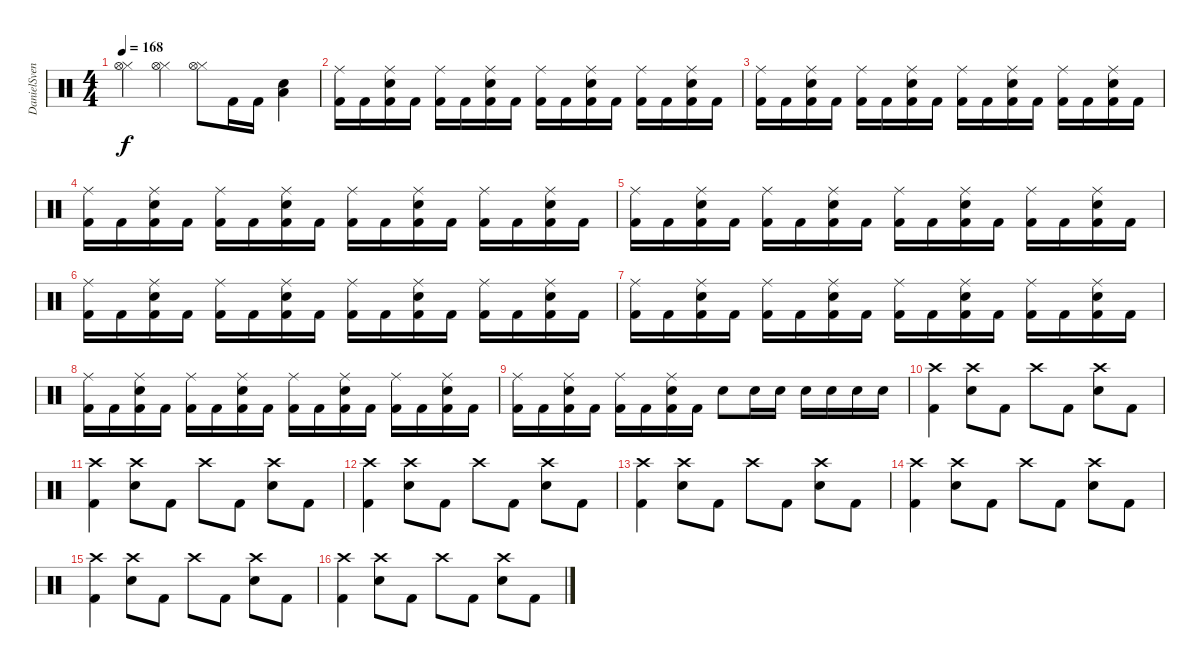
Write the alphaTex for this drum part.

\track ("DanielSvensson" "DanielSven") {instrument percussion}
\staff {score}
\articulation defaults
\ts (4 4)
\tempo 168
\clef neutral
\ks c
("Hi-Hat (closed)" "Hi-Hat (open)").4{dy f} ("Hi-Hat (closed)" "Hi-Hat (open)").4 ("Hi-Hat (closed)" "Hi-Hat (open)").8 "Kick (hit) 2".16 "Kick (hit) 2".16 ("Electric Snare (hit)" "Low Floor Tom (hit)").4 |
("Ride (middle)" "Kick (hit) 2").16 "Kick (hit) 2".16 ("Ride (middle)" "Electric Snare (hit)" "Kick (hit) 2").16 "Kick (hit) 2".16 ("Ride (middle)" "Kick (hit) 2").16 "Kick (hit) 2".16 ("Ride (middle)" "Electric Snare (hit)" "Kick (hit) 2").16 "Kick (hit) 2".16 ("Ride (middle)" "Kick (hit) 2").16 "Kick (hit) 2".16 ("Ride (middle)" "Electric Snare (hit)" "Kick (hit) 2").16 "Kick (hit) 2".16 ("Ride (middle)" "Kick (hit) 2").16 "Kick (hit) 2".16 ("Ride (middle)" "Electric Snare (hit)" "Kick (hit) 2").16 "Kick (hit) 2".16 |
("Ride (middle)" "Kick (hit) 2").16 "Kick (hit) 2".16 ("Ride (middle)" "Electric Snare (hit)" "Kick (hit) 2").16 "Kick (hit) 2".16 ("Ride (middle)" "Kick (hit) 2").16 "Kick (hit) 2".16 ("Ride (middle)" "Electric Snare (hit)" "Kick (hit) 2").16 "Kick (hit) 2".16 ("Ride (middle)" "Kick (hit) 2").16 "Kick (hit) 2".16 ("Ride (middle)" "Electric Snare (hit)" "Kick (hit) 2").16 "Kick (hit) 2".16 ("Ride (middle)" "Kick (hit) 2").16 "Kick (hit) 2".16 ("Ride (middle)" "Electric Snare (hit)" "Kick (hit) 2").16 "Kick (hit) 2".16 |
("Ride (middle)" "Kick (hit) 2").16 "Kick (hit) 2".16 ("Ride (middle)" "Electric Snare (hit)" "Kick (hit) 2").16 "Kick (hit) 2".16 ("Ride (middle)" "Kick (hit) 2").16 "Kick (hit) 2".16 ("Ride (middle)" "Electric Snare (hit)" "Kick (hit) 2").16 "Kick (hit) 2".16 ("Ride (middle)" "Kick (hit) 2").16 "Kick (hit) 2".16 ("Ride (middle)" "Electric Snare (hit)" "Kick (hit) 2").16 "Kick (hit) 2".16 ("Ride (middle)" "Kick (hit) 2").16 "Kick (hit) 2".16 ("Ride (middle)" "Electric Snare (hit)" "Kick (hit) 2").16 "Kick (hit) 2".16 |
("Ride (middle)" "Kick (hit) 2").16 "Kick (hit) 2".16 ("Ride (middle)" "Electric Snare (hit)" "Kick (hit) 2").16 "Kick (hit) 2".16 ("Ride (middle)" "Kick (hit) 2").16 "Kick (hit) 2".16 ("Ride (middle)" "Electric Snare (hit)" "Kick (hit) 2").16 "Kick (hit) 2".16 ("Ride (middle)" "Kick (hit) 2").16 "Kick (hit) 2".16 ("Ride (middle)" "Electric Snare (hit)" "Kick (hit) 2").16 "Kick (hit) 2".16 ("Ride (middle)" "Kick (hit) 2").16 "Kick (hit) 2".16 ("Ride (middle)" "Electric Snare (hit)" "Kick (hit) 2").16 "Kick (hit) 2".16 |
("Ride (middle)" "Kick (hit) 2").16 "Kick (hit) 2".16 ("Ride (middle)" "Electric Snare (hit)" "Kick (hit) 2").16 "Kick (hit) 2".16 ("Ride (middle)" "Kick (hit) 2").16 "Kick (hit) 2".16 ("Ride (middle)" "Electric Snare (hit)" "Kick (hit) 2").16 "Kick (hit) 2".16 ("Ride (middle)" "Kick (hit) 2").16 "Kick (hit) 2".16 ("Ride (middle)" "Electric Snare (hit)" "Kick (hit) 2").16 "Kick (hit) 2".16 ("Ride (middle)" "Kick (hit) 2").16 "Kick (hit) 2".16 ("Ride (middle)" "Electric Snare (hit)" "Kick (hit) 2").16 "Kick (hit) 2".16 |
("Ride (middle)" "Kick (hit) 2").16 "Kick (hit) 2".16 ("Ride (middle)" "Electric Snare (hit)" "Kick (hit) 2").16 "Kick (hit) 2".16 ("Ride (middle)" "Kick (hit) 2").16 "Kick (hit) 2".16 ("Ride (middle)" "Electric Snare (hit)" "Kick (hit) 2").16 "Kick (hit) 2".16 ("Ride (middle)" "Kick (hit) 2").16 "Kick (hit) 2".16 ("Ride (middle)" "Electric Snare (hit)" "Kick (hit) 2").16 "Kick (hit) 2".16 ("Ride (middle)" "Kick (hit) 2").16 "Kick (hit) 2".16 ("Ride (middle)" "Electric Snare (hit)" "Kick (hit) 2").16 "Kick (hit) 2".16 |
("Ride (middle)" "Kick (hit) 2").16 "Kick (hit) 2".16 ("Ride (middle)" "Electric Snare (hit)" "Kick (hit) 2").16 "Kick (hit) 2".16 ("Ride (middle)" "Kick (hit) 2").16 "Kick (hit) 2".16 ("Ride (middle)" "Electric Snare (hit)" "Kick (hit) 2").16 "Kick (hit) 2".16 ("Ride (middle)" "Kick (hit) 2").16 "Kick (hit) 2".16 ("Ride (middle)" "Electric Snare (hit)" "Kick (hit) 2").16 "Kick (hit) 2".16 ("Ride (middle)" "Kick (hit) 2").16 "Kick (hit) 2".16 ("Ride (middle)" "Electric Snare (hit)" "Kick (hit) 2").16 "Kick (hit) 2".16 |
("Ride (middle)" "Kick (hit) 2").16 "Kick (hit) 2".16 ("Ride (middle)" "Electric Snare (hit)" "Kick (hit) 2").16 "Kick (hit) 2".16 ("Ride (middle)" "Kick (hit) 2").16 "Kick (hit) 2".16 ("Ride (middle)" "Electric Snare (hit)" "Kick (hit) 2").16 "Kick (hit) 2".16 "Electric Snare (hit)".8 "Electric Snare (hit)".16 "Electric Snare (hit)".16 "Electric Snare (hit)".16 "Electric Snare (hit)".16 "Electric Snare (hit)".16 "Electric Snare (hit)".16 |
("Crash high (hit)" "Kick (hit) 2").4 ("Crash high (hit)" "Electric Snare (hit)").8 "Kick (hit) 2".8 "Crash high (hit)".8 "Kick (hit) 2".8 ("Crash high (hit)" "Electric Snare (hit)").8 "Kick (hit) 2".8 |
("Crash high (hit)" "Kick (hit) 2").4 ("Crash high (hit)" "Electric Snare (hit)").8 "Kick (hit) 2".8 "Crash high (hit)".8 "Kick (hit) 2".8 ("Crash high (hit)" "Electric Snare (hit)").8 "Kick (hit) 2".8 |
("Crash high (hit)" "Kick (hit) 2").4 ("Crash high (hit)" "Electric Snare (hit)").8 "Kick (hit) 2".8 "Crash high (hit)".8 "Kick (hit) 2".8 ("Crash high (hit)" "Electric Snare (hit)").8 "Kick (hit) 2".8 |
("Crash high (hit)" "Kick (hit) 2").4 ("Crash high (hit)" "Electric Snare (hit)").8 "Kick (hit) 2".8 "Crash high (hit)".8 "Kick (hit) 2".8 ("Crash high (hit)" "Electric Snare (hit)").8 "Kick (hit) 2".8 |
("Crash high (hit)" "Kick (hit) 2").4 ("Crash high (hit)" "Electric Snare (hit)").8 "Kick (hit) 2".8 "Crash high (hit)".8 "Kick (hit) 2".8 ("Crash high (hit)" "Electric Snare (hit)").8 "Kick (hit) 2".8 |
("Crash high (hit)" "Kick (hit) 2").4 ("Crash high (hit)" "Electric Snare (hit)").8 "Kick (hit) 2".8 "Crash high (hit)".8 "Kick (hit) 2".8 ("Crash high (hit)" "Electric Snare (hit)").8 "Kick (hit) 2".8 |
("Crash high (hit)" "Kick (hit) 2").4 ("Crash high (hit)" "Electric Snare (hit)").8 "Kick (hit) 2".8 "Crash high (hit)".8 "Kick (hit) 2".8 ("Crash high (hit)" "Electric Snare (hit)").8 "Kick (hit) 2".8
